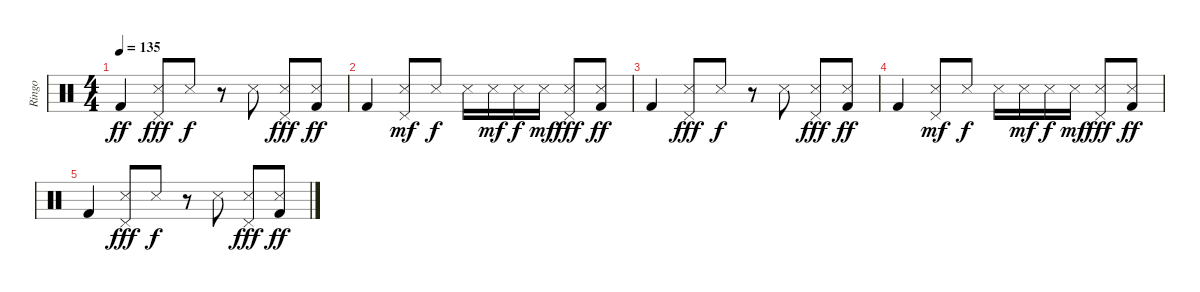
\track ("Ringo" "Ringo") {instrument percussion}
\staff {score}
\articulation defaults
\ts (4 4)
\tempo 135
\clef neutral
\ks c "Kick (hit) 2".4{dy ff volume 9}
("Pedal Hi-Hat (hit)" "Snare (side stick) 3").8{dy fff} "Snare (side stick) 3".8{dy f} r.8 "Snare (side stick) 3".8 ("Pedal Hi-Hat (hit)" "Snare (side stick) 3").8{dy fff} ("Snare (side stick) 3" "Kick (hit) 2").8{dy ff} |
"Kick (hit) 2".4{volume 7} ("Pedal Hi-Hat (hit)" "Snare (side stick) 3").8{dy mf} "Snare (side stick) 3".8{dy f} "Snare (side stick) 3".16 "Snare (side stick) 3".16{dy mf} "Snare (side stick) 3".16{dy f} "Snare (side stick) 3".16{dy mf} ("Pedal Hi-Hat (hit)" "Snare (side stick) 3").8{dy fff} ("Snare (side stick) 3" "Kick (hit) 2").8{dy ff} |
"Kick (hit) 2".4{volume 5} ("Pedal Hi-Hat (hit)" "Snare (side stick) 3").8{dy fff} "Snare (side stick) 3".8{dy f} r.8 "Snare (side stick) 3".8 ("Pedal Hi-Hat (hit)" "Snare (side stick) 3").8{dy fff} ("Snare (side stick) 3" "Kick (hit) 2").8{dy ff} |
"Kick (hit) 2".4{volume 3} ("Pedal Hi-Hat (hit)" "Snare (side stick) 3").8{dy mf} "Snare (side stick) 3".8{dy f} "Snare (side stick) 3".16 "Snare (side stick) 3".16{dy mf} "Snare (side stick) 3".16{dy f} "Snare (side stick) 3".16{dy mf} ("Pedal Hi-Hat (hit)" "Snare (side stick) 3").8{dy fff} ("Snare (side stick) 3" "Kick (hit) 2").8{dy ff} |
"Kick (hit) 2".4{volume 1} ("Pedal Hi-Hat (hit)" "Snare (side stick) 3").8{dy fff} "Snare (side stick) 3".8{dy f} r.8 "Snare (side stick) 3".8 ("Pedal Hi-Hat (hit)" "Snare (side stick) 3").8{dy fff} ("Snare (side stick) 3" "Kick (hit) 2").8{dy ff}
